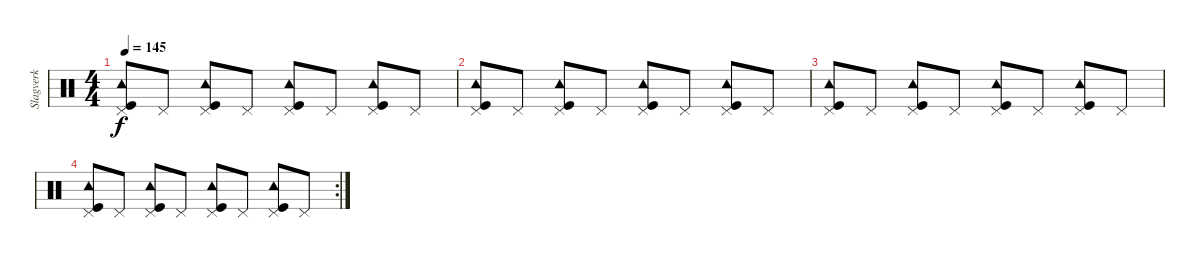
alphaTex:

\track ("Slagverk" "Slagverk") {instrument percussion}
\staff {score}
\articulation defaults
\ts (4 4)
\tempo 145
\clef neutral
\ks c
("Pedal Hi-Hat (hit)" "Tambourine (hit)" "Kick (hit)").8{dy f} "Pedal Hi-Hat (hit)".8 ("Pedal Hi-Hat (hit)" "Tambourine (hit)" "Kick (hit)").8 "Pedal Hi-Hat (hit)".8 ("Pedal Hi-Hat (hit)" "Tambourine (hit)" "Kick (hit)").8 "Pedal Hi-Hat (hit)".8 ("Pedal Hi-Hat (hit)" "Tambourine (hit)" "Kick (hit)").8 "Pedal Hi-Hat (hit)".8 |
("Pedal Hi-Hat (hit)" "Tambourine (hit)" "Kick (hit)").8 "Pedal Hi-Hat (hit)".8 ("Pedal Hi-Hat (hit)" "Tambourine (hit)" "Kick (hit)").8 "Pedal Hi-Hat (hit)".8 ("Pedal Hi-Hat (hit)" "Tambourine (hit)" "Kick (hit)").8 "Pedal Hi-Hat (hit)".8 ("Pedal Hi-Hat (hit)" "Tambourine (hit)" "Kick (hit)").8 "Pedal Hi-Hat (hit)".8 |
("Pedal Hi-Hat (hit)" "Tambourine (hit)" "Kick (hit)").8 "Pedal Hi-Hat (hit)".8 ("Pedal Hi-Hat (hit)" "Tambourine (hit)" "Kick (hit)").8 "Pedal Hi-Hat (hit)".8 ("Pedal Hi-Hat (hit)" "Tambourine (hit)" "Kick (hit)").8 "Pedal Hi-Hat (hit)".8 ("Pedal Hi-Hat (hit)" "Tambourine (hit)" "Kick (hit)").8 "Pedal Hi-Hat (hit)".8 |
\rc 2
("Pedal Hi-Hat (hit)" "Tambourine (hit)" "Kick (hit)").8 "Pedal Hi-Hat (hit)".8 ("Pedal Hi-Hat (hit)" "Tambourine (hit)" "Kick (hit)").8 "Pedal Hi-Hat (hit)".8 ("Pedal Hi-Hat (hit)" "Tambourine (hit)" "Kick (hit)").8 "Pedal Hi-Hat (hit)".8 ("Pedal Hi-Hat (hit)" "Tambourine (hit)" "Kick (hit)").8 "Pedal Hi-Hat (hit)".8
